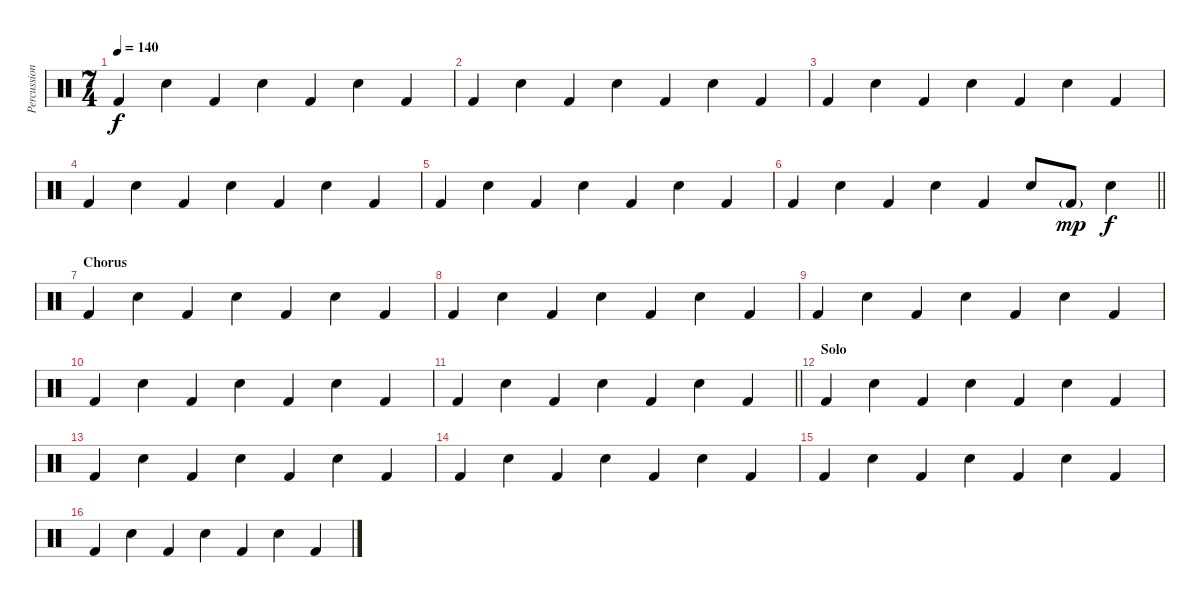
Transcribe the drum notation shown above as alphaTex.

\track ("Percussion" "Percussion") {instrument percussion}
\staff {score}
\articulation defaults
\ts (7 4)
\tempo 140
\clef neutral
\ks c "Kick (hit) 2".4{dy f} "Snare (hit) 2".4 "Kick (hit) 2".4 "Snare (hit) 2".4 "Kick (hit) 2".4 "Snare (hit) 2".4 "Kick (hit) 2".4
|
"Kick (hit) 2".4 "Snare (hit) 2".4 "Kick (hit) 2".4 "Snare (hit) 2".4 "Kick (hit) 2".4 "Snare (hit) 2".4 "Kick (hit) 2".4 |
"Kick (hit) 2".4 "Snare (hit) 2".4 "Kick (hit) 2".4 "Snare (hit) 2".4 "Kick (hit) 2".4 "Snare (hit) 2".4 "Kick (hit) 2".4 |
"Kick (hit) 2".4 "Snare (hit) 2".4 "Kick (hit) 2".4 "Snare (hit) 2".4 "Kick (hit) 2".4 "Snare (hit) 2".4 "Kick (hit) 2".4 |
"Kick (hit) 2".4 "Snare (hit) 2".4 "Kick (hit) 2".4 "Snare (hit) 2".4 "Kick (hit) 2".4 "Snare (hit) 2".4 "Kick (hit) 2".4 |
\barLineRight lightlight "Kick (hit) 2".4 "Snare (hit) 2".4 "Kick (hit) 2".4 "Snare (hit) 2".4 "Kick (hit) 2".4 "Snare (hit) 2".8 "Kick (hit) 2"{g}.8{dy mp} "Snare (hit) 2".4{dy f}
|
\section ("" "Chorus")
"Kick (hit) 2".4 "Snare (hit) 2".4 "Kick (hit) 2".4 "Snare (hit) 2".4 "Kick (hit) 2".4 "Snare (hit) 2".4 "Kick (hit) 2".4 |
"Kick (hit) 2".4 "Snare (hit) 2".4 "Kick (hit) 2".4 "Snare (hit) 2".4 "Kick (hit) 2".4 "Snare (hit) 2".4 "Kick (hit) 2".4 |
"Kick (hit) 2".4 "Snare (hit) 2".4 "Kick (hit) 2".4 "Snare (hit) 2".4 "Kick (hit) 2".4 "Snare (hit) 2".4 "Kick (hit) 2".4 |
"Kick (hit) 2".4 "Snare (hit) 2".4 "Kick (hit) 2".4 "Snare (hit) 2".4 "Kick (hit) 2".4 "Snare (hit) 2".4 "Kick (hit) 2".4 |
\barLineRight lightlight "Kick (hit) 2".4 "Snare (hit) 2".4 "Kick (hit) 2".4 "Snare (hit) 2".4 "Kick (hit) 2".4 "Snare (hit) 2".4 "Kick (hit) 2".4
|
\section ("" "Solo")
"Kick (hit) 2".4 "Snare (hit) 2".4 "Kick (hit) 2".4 "Snare (hit) 2".4 "Kick (hit) 2".4 "Snare (hit) 2".4 "Kick (hit) 2".4 |
"Kick (hit) 2".4 "Snare (hit) 2".4 "Kick (hit) 2".4 "Snare (hit) 2".4 "Kick (hit) 2".4 "Snare (hit) 2".4 "Kick (hit) 2".4 |
"Kick (hit) 2".4 "Snare (hit) 2".4 "Kick (hit) 2".4 "Snare (hit) 2".4 "Kick (hit) 2".4 "Snare (hit) 2".4 "Kick (hit) 2".4 |
"Kick (hit) 2".4 "Snare (hit) 2".4 "Kick (hit) 2".4 "Snare (hit) 2".4 "Kick (hit) 2".4 "Snare (hit) 2".4 "Kick (hit) 2".4 |
"Kick (hit) 2".4 "Snare (hit) 2".4 "Kick (hit) 2".4 "Snare (hit) 2".4 "Kick (hit) 2".4 "Snare (hit) 2".4 "Kick (hit) 2".4
